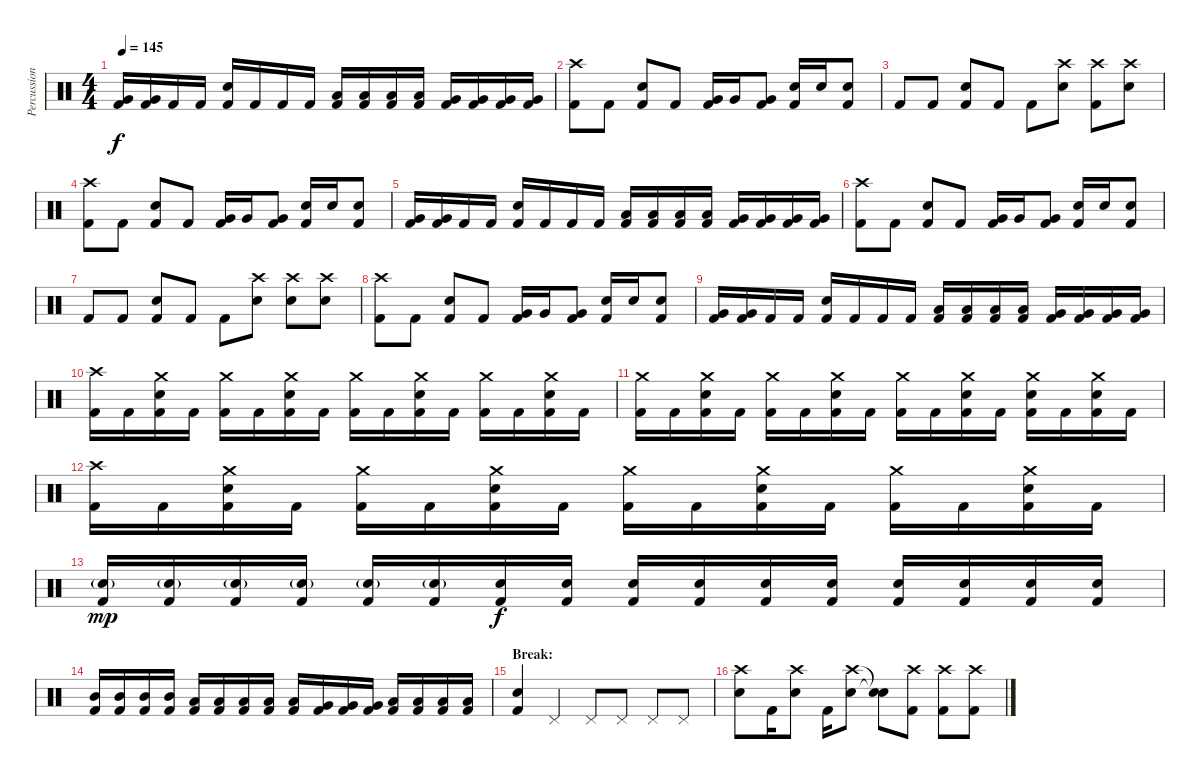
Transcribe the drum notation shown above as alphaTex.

\track ("Percussion" "Percussion") {instrument percussion}
\staff {score}
\articulation defaults
\ts (4 4)
\tempo 145
\clef neutral
\ks c
("Very Low Tom (hit)" "Kick (hit) 2").16{dy f} ("Very Low Tom (hit)" "Kick (hit) 2").16 "Kick (hit) 2".16 "Kick (hit) 2".16 ("Snare (hit) 2" "Kick (hit) 2").16 "Kick (hit) 2".16 "Kick (hit) 2".16 "Kick (hit) 2".16 ("Low Tom (hit)" "Kick (hit) 2").16 ("Low Tom (hit)" "Kick (hit) 2").16 ("Low Tom (hit)" "Kick (hit) 2").16 ("Low Tom (hit)" "Kick (hit) 2").16 ("Very Low Tom (hit)" "Kick (hit) 2").16 ("Very Low Tom (hit)" "Kick (hit) 2").16 ("Very Low Tom (hit)" "Kick (hit) 2").16 ("Very Low Tom (hit)" "Kick (hit) 2").16 |
("Crash high (hit)" "Kick (hit) 2").8 "Kick (hit) 2".8 ("Snare (hit) 2" "Kick (hit) 2").8 "Kick (hit) 2".8 ("Very Low Tom (hit)" "Kick (hit) 2").16 "Very Low Tom (hit)".16 ("Very Low Tom (hit)" "Kick (hit) 2").8 ("Snare (hit) 2" "Kick (hit) 2").16 "Snare (hit) 2".16 ("Snare (hit) 2" "Kick (hit) 2").8 |
"Kick (hit) 2".8 "Kick (hit) 2".8 ("Snare (hit) 2" "Kick (hit) 2").8 "Kick (hit) 2".8 "Kick (hit) 2".8 ("Crash high (hit)" "Snare (hit) 2").8 ("Crash high (hit)" "Kick (hit) 2").8 ("Crash high (hit)" "Snare (hit) 2").8 |
("Crash high (hit)" "Kick (hit) 2").8 "Kick (hit) 2".8 ("Snare (hit) 2" "Kick (hit) 2").8 "Kick (hit) 2".8 ("Very Low Tom (hit)" "Kick (hit) 2").16 "Very Low Tom (hit)".16 ("Very Low Tom (hit)" "Kick (hit) 2").8 ("Snare (hit) 2" "Kick (hit) 2").16 "Snare (hit) 2".16 ("Snare (hit) 2" "Kick (hit) 2").8 |
("Very Low Tom (hit)" "Kick (hit) 2").16 ("Very Low Tom (hit)" "Kick (hit) 2").16 "Kick (hit) 2".16 "Kick (hit) 2".16 ("Snare (hit) 2" "Kick (hit) 2").16 "Kick (hit) 2".16 "Kick (hit) 2".16 "Kick (hit) 2".16 ("Low Tom (hit)" "Kick (hit) 2").16 ("Low Tom (hit)" "Kick (hit) 2").16 ("Low Tom (hit)" "Kick (hit) 2").16 ("Low Tom (hit)" "Kick (hit) 2").16 ("Very Low Tom (hit)" "Kick (hit) 2").16 ("Very Low Tom (hit)" "Kick (hit) 2").16 ("Very Low Tom (hit)" "Kick (hit) 2").16 ("Very Low Tom (hit)" "Kick (hit) 2").16 |
("Crash high (hit)" "Kick (hit) 2").8 "Kick (hit) 2".8 ("Snare (hit) 2" "Kick (hit) 2").8 "Kick (hit) 2".8 ("Very Low Tom (hit)" "Kick (hit) 2").16 "Very Low Tom (hit)".16 ("Very Low Tom (hit)" "Kick (hit) 2").8 ("Snare (hit) 2" "Kick (hit) 2").16 "Snare (hit) 2".16 ("Snare (hit) 2" "Kick (hit) 2").8 |
"Kick (hit) 2".8 "Kick (hit) 2".8 ("Snare (hit) 2" "Kick (hit) 2").8 "Kick (hit) 2".8 "Kick (hit) 2".8 ("Crash high (hit)" "Snare (hit) 2").8 ("Crash high (hit)" "Snare (hit) 2").8 ("Crash high (hit)" "Snare (hit) 2").8 |
("Crash high (hit)" "Kick (hit) 2").8 "Kick (hit) 2".8 ("Snare (hit) 2" "Kick (hit) 2").8 "Kick (hit) 2".8 ("Very Low Tom (hit)" "Kick (hit) 2").16 "Very Low Tom (hit)".16 ("Very Low Tom (hit)" "Kick (hit) 2").8 ("Snare (hit) 2" "Kick (hit) 2").16 "Snare (hit) 2".16 ("Snare (hit) 2" "Kick (hit) 2").8 |
("Very Low Tom (hit)" "Kick (hit) 2").16 ("Very Low Tom (hit)" "Kick (hit) 2").16 "Kick (hit) 2".16 "Kick (hit) 2".16 ("Snare (hit) 2" "Kick (hit) 2").16 "Kick (hit) 2".16 "Kick (hit) 2".16 "Kick (hit) 2".16 ("Low Tom (hit)" "Kick (hit) 2").16 ("Low Tom (hit)" "Kick (hit) 2").16 ("Low Tom (hit)" "Kick (hit) 2").16 ("Low Tom (hit)" "Kick (hit) 2").16 ("Very Low Tom (hit)" "Kick (hit) 2").16 ("Very Low Tom (hit)" "Kick (hit) 2").16 ("Very Low Tom (hit)" "Kick (hit) 2").16 ("Very Low Tom (hit)" "Kick (hit) 2").16 |
("Crash high (hit)" "Kick (hit) 2").16 "Kick (hit) 2".16 ("Crash medium (hit)" "Snare (hit) 2" "Kick (hit) 2").16 "Kick (hit) 2".16 ("Crash medium (hit)" "Kick (hit) 2").16 "Kick (hit) 2".16 ("Crash medium (hit)" "Snare (hit) 2" "Kick (hit) 2").16 "Kick (hit) 2".16 ("Crash medium (hit)" "Kick (hit) 2").16 "Kick (hit) 2".16 ("Crash medium (hit)" "Snare (hit) 2" "Kick (hit) 2").16 "Kick (hit) 2".16 ("Crash medium (hit)" "Kick (hit) 2").16 "Kick (hit) 2".16 ("Crash medium (hit)" "Snare (hit) 2" "Kick (hit) 2").16 "Kick (hit) 2".16 |
("Crash medium (hit)" "Kick (hit) 2").16 "Kick (hit) 2".16 ("Crash medium (hit)" "Snare (hit) 2" "Kick (hit) 2").16 "Kick (hit) 2".16 ("Crash medium (hit)" "Kick (hit) 2").16 "Kick (hit) 2".16 ("Crash medium (hit)" "Snare (hit) 2" "Kick (hit) 2").16 "Kick (hit) 2".16 ("Crash medium (hit)" "Kick (hit) 2").16 "Kick (hit) 2".16 ("Crash medium (hit)" "Snare (hit) 2" "Kick (hit) 2").16 "Kick (hit) 2".16 ("Crash medium (hit)" "Snare (hit) 2" "Kick (hit) 2").16 "Kick (hit) 2".16 ("Crash medium (hit)" "Snare (hit) 2" "Kick (hit) 2").16 "Kick (hit) 2".16 |
("Crash high (hit)" "Kick (hit) 2").16 "Kick (hit) 2".16 ("Crash medium (hit)" "Snare (hit) 2" "Kick (hit) 2").16 "Kick (hit) 2".16 ("Crash medium (hit)" "Kick (hit) 2").16 "Kick (hit) 2".16 ("Crash medium (hit)" "Snare (hit) 2" "Kick (hit) 2").16 "Kick (hit) 2".16 ("Crash medium (hit)" "Kick (hit) 2").16 "Kick (hit) 2".16 ("Crash medium (hit)" "Snare (hit) 2" "Kick (hit) 2").16 "Kick (hit) 2".16 ("Crash medium (hit)" "Kick (hit) 2").16 "Kick (hit) 2".16 ("Crash medium (hit)" "Snare (hit) 2" "Kick (hit) 2").16 "Kick (hit) 2".16 |
("Snare (hit) 2"{g} "Kick (hit) 2").16{dy mp} ("Snare (hit) 2"{g} "Kick (hit) 2").16 ("Snare (hit) 2"{g} "Kick (hit) 2").16 ("Snare (hit) 2"{g} "Kick (hit) 2").16 ("Snare (hit) 2"{g} "Kick (hit) 2").16 ("Snare (hit) 2"{g} "Kick (hit) 2").16 ("Snare (hit) 2" "Kick (hit) 2").16{dy f} ("Snare (hit) 2" "Kick (hit) 2").16 ("Snare (hit) 2" "Kick (hit) 2").16 ("Snare (hit) 2" "Kick (hit) 2").16 ("Snare (hit) 2" "Kick (hit) 2").16 ("Snare (hit) 2" "Kick (hit) 2").16 ("Snare (hit) 2" "Kick (hit) 2").16 ("Snare (hit) 2" "Kick (hit) 2").16 ("Snare (hit) 2" "Kick (hit) 2").16 ("Snare (hit) 2" "Kick (hit) 2").16 |
("Mid Tom (hit)" "Kick (hit) 2").16 ("Mid Tom (hit)" "Kick (hit) 2").16 ("Mid Tom (hit)" "Kick (hit) 2").16 ("Mid Tom (hit)" "Kick (hit) 2").16 ("Low Tom (hit)" "Kick (hit) 2").16 ("Low Tom (hit)" "Kick (hit) 2").16 ("Low Tom (hit)" "Kick (hit) 2").16 ("Low Tom (hit)" "Kick (hit) 2").16 ("Low Tom (hit)" "Kick (hit) 2").16 ("Very Low Tom (hit)" "Kick (hit) 2").16 ("Very Low Tom (hit)" "Kick (hit) 2").16 ("Very Low Tom (hit)" "Kick (hit) 2").16 ("Low Floor Tom (hit)" "Kick (hit) 2").16 ("Low Floor Tom (hit)" "Kick (hit) 2").16 ("Low Floor Tom (hit)" "Kick (hit) 2").16 ("Low Floor Tom (hit)" "Kick (hit) 2").16 |
\section ("" "Break:")
("Snare (hit) 2" "Kick (hit) 2").4 "Pedal Hi-Hat (hit)".4 "Pedal Hi-Hat (hit)".8 "Pedal Hi-Hat (hit)".8 "Pedal Hi-Hat (hit)".8 "Pedal Hi-Hat (hit)".8 |
("Crash high (hit)" "Snare (hit) 2").8 "Kick (hit) 2".16 ("Crash high (hit)" "Snare (hit) 2").8 "Kick (hit) 2".16 ("Crash high (hit)" "Snare (hit) 2").8 ("Snare (hit)"{t} "Snare (hit)"{t}).8 ("Crash high (hit)" "Kick (hit) 2").8 ("Crash high (hit)" "Kick (hit) 2").8 ("Crash high (hit)" "Kick (hit) 2").8
